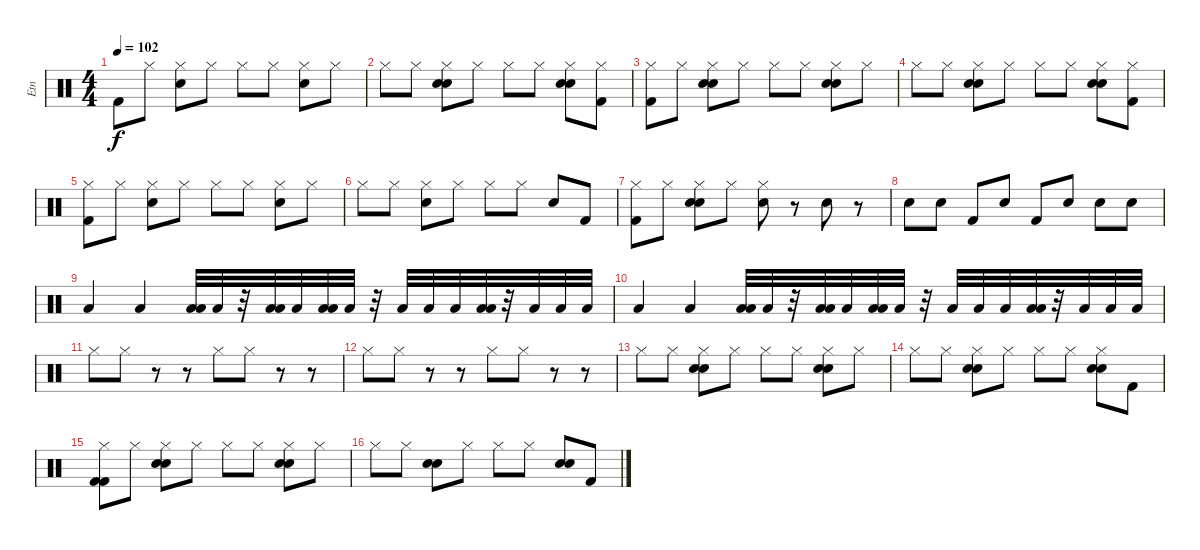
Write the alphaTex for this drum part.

\track ("Etn" "Etn") {instrument percussion}
\staff {score}
\articulation defaults
\ts (4 4)
\tempo 102
\clef neutral
\ks c "Kick (hit) 2".8{dy f} "Hi-Hat (closed)"{x}.8
("Hi-Hat (closed)"{x} "Snare (hit) 2").8 "Hi-Hat (closed)"{x}.8 "Hi-Hat (closed)"{x}.8 "Hi-Hat (closed)"{x}.8 ("Hi-Hat (closed)"{x} "Snare (hit) 2").8 "Hi-Hat (closed)"{x}.8 |
"Hi-Hat (closed)"{x}.8 "Hi-Hat (closed)"{x}.8 ("Hi-Hat (closed)"{x} "Snare (hit) 2" "Snare (hit) 2").8 "Hi-Hat (closed)"{x}.8 "Hi-Hat (closed)"{x}.8 "Hi-Hat (closed)"{x}.8 ("Hi-Hat (closed)"{x} "Snare (hit) 2" "Snare (hit) 2").8 ("Hi-Hat (closed)"{x} "Kick (hit) 2").8 |
("Hi-Hat (closed)"{x} "Kick (hit) 2").8 "Hi-Hat (closed)"{x}.8 ("Hi-Hat (closed)"{x} "Snare (hit) 2" "Snare (hit) 2").8 "Hi-Hat (closed)"{x}.8 "Hi-Hat (closed)"{x}.8 "Hi-Hat (closed)"{x}.8 ("Hi-Hat (closed)"{x} "Snare (hit) 2" "Snare (hit) 2").8 "Hi-Hat (closed)"{x}.8 |
"Hi-Hat (closed)"{x}.8 "Hi-Hat (closed)"{x}.8 ("Hi-Hat (closed)"{x} "Snare (hit) 2" "Snare (hit) 2").8 "Hi-Hat (closed)"{x}.8 "Hi-Hat (closed)"{x}.8 "Hi-Hat (closed)"{x}.8 ("Hi-Hat (closed)"{x} "Snare (hit) 2" "Snare (hit) 2").8 ("Hi-Hat (closed)"{x} "Kick (hit) 2").8 |
("Hi-Hat (closed)"{x} "Kick (hit) 2").8 "Hi-Hat (closed)"{x}.8 ("Hi-Hat (closed)"{x} "Snare (hit) 2").8 "Hi-Hat (closed)"{x}.8 "Hi-Hat (closed)"{x}.8 "Hi-Hat (closed)"{x}.8 ("Hi-Hat (closed)"{x} "Snare (hit) 2").8 "Hi-Hat (closed)"{x}.8 |
"Hi-Hat (closed)"{x}.8 "Hi-Hat (closed)"{x}.8 ("Hi-Hat (closed)"{x} "Snare (hit) 2").8 "Hi-Hat (closed)"{x}.8 "Hi-Hat (closed)"{x}.8 "Hi-Hat (closed)"{x}.8 "Snare (hit) 2".8 "Kick (hit) 2".8 |
("Hi-Hat (closed)"{x} "Kick (hit) 2").8 "Hi-Hat (closed)"{x}.8 ("Hi-Hat (closed)"{x} "Snare (hit) 2" "Snare (hit) 2").8 "Hi-Hat (closed)".8 ("Hi-Hat (closed)"{x} "Snare (hit) 2").8 r.8 "Snare (hit) 2".8 r.8 |
"Snare (hit) 2".8 "Snare (hit) 2".8 "Kick (hit) 2".8 "Snare (hit) 2".8 "Kick (hit) 2".8 "Snare (hit) 2".8 "Snare (hit) 2".8 "Snare (hit) 2".8 |
"Low Tom (hit)".4 "Low Tom (hit)".4 ("Low Floor Tom (hit)" "Low Floor Tom (hit)").32 "Low Floor Tom (hit)".32 r.32 ("Low Floor Tom (hit)" "Low Floor Tom (hit)").32 "Low Floor Tom (hit)".32 ("Low Floor Tom (hit)" "Low Floor Tom (hit)").32 "Low Floor Tom (hit)".32 r.32 "Low Floor Tom (hit)".32 "Low Floor Tom (hit)".32 "Low Floor Tom (hit)".32 ("Low Floor Tom (hit)" "Low Floor Tom (hit)").32 r.32 "Low Floor Tom (hit)".32 "Low Floor Tom (hit)".32 "Low Floor Tom (hit)".32 |
"Low Tom (hit)".4 "Low Tom (hit)".4 ("Low Floor Tom (hit)" "Low Floor Tom (hit)").32 "Low Floor Tom (hit)".32 r.32 ("Low Floor Tom (hit)" "Low Floor Tom (hit)").32 "Low Floor Tom (hit)".32 ("Low Floor Tom (hit)" "Low Floor Tom (hit)").32 "Low Floor Tom (hit)".32 r.32 "Low Floor Tom (hit)".32 "Low Floor Tom (hit)".32 "Low Floor Tom (hit)".32 ("Low Floor Tom (hit)" "Low Floor Tom (hit)").32 r.32 "Low Floor Tom (hit)".32 "Low Floor Tom (hit)".32 "Low Floor Tom (hit)".32 |
"Hi-Hat (closed)".8{volume 16} "Hi-Hat (closed)".8 r.8 r.8 "Hi-Hat (closed)".8 "Hi-Hat (closed)".8 r.8 r.8 |
"Hi-Hat (closed)".8 "Hi-Hat (closed)".8 r.8 r.8 "Hi-Hat (closed)".8 "Hi-Hat (closed)".8 r.8 r.8 |
"Hi-Hat (closed)"{x}.8 "Hi-Hat (closed)"{x}.8 ("Hi-Hat (closed)"{x} "Snare (hit) 2" "Snare (hit) 2").8 "Hi-Hat (closed)"{x}.8 "Hi-Hat (closed)"{x}.8 "Hi-Hat (closed)"{x}.8 ("Hi-Hat (closed)"{x} "Snare (hit) 2" "Snare (hit) 2").8 "Hi-Hat (closed)"{x}.8 |
"Hi-Hat (closed)"{x}.8 "Hi-Hat (closed)"{x}.8 ("Hi-Hat (closed)"{x} "Snare (hit) 2" "Snare (hit) 2").8 "Hi-Hat (closed)"{x}.8 "Hi-Hat (closed)"{x}.8 "Hi-Hat (closed)"{x}.8 ("Hi-Hat (closed)"{x} "Snare (hit) 2" "Snare (hit) 2").8 "Kick (hit) 2".8 |
("Hi-Hat (closed)"{x} "Kick (hit) 2" "Kick (hit) 2").8 "Hi-Hat (closed)"{x}.8 ("Hi-Hat (closed)"{x} "Snare (hit) 2" "Snare (hit) 2").8 "Hi-Hat (closed)"{x}.8 "Hi-Hat (closed)"{x}.8 "Hi-Hat (closed)"{x}.8 ("Hi-Hat (closed)"{x} "Snare (hit) 2" "Snare (hit) 2").8 "Hi-Hat (closed)"{x}.8 |
"Hi-Hat (closed)"{x}.8 "Hi-Hat (closed)"{x}.8 ("Snare (hit) 2" "Snare (hit) 2").8 "Hi-Hat (closed)"{x}.8 "Hi-Hat (closed)"{x}.8 "Hi-Hat (closed)"{x}.8 ("Snare (hit) 2" "Snare (hit) 2").8 "Kick (hit) 2".8
